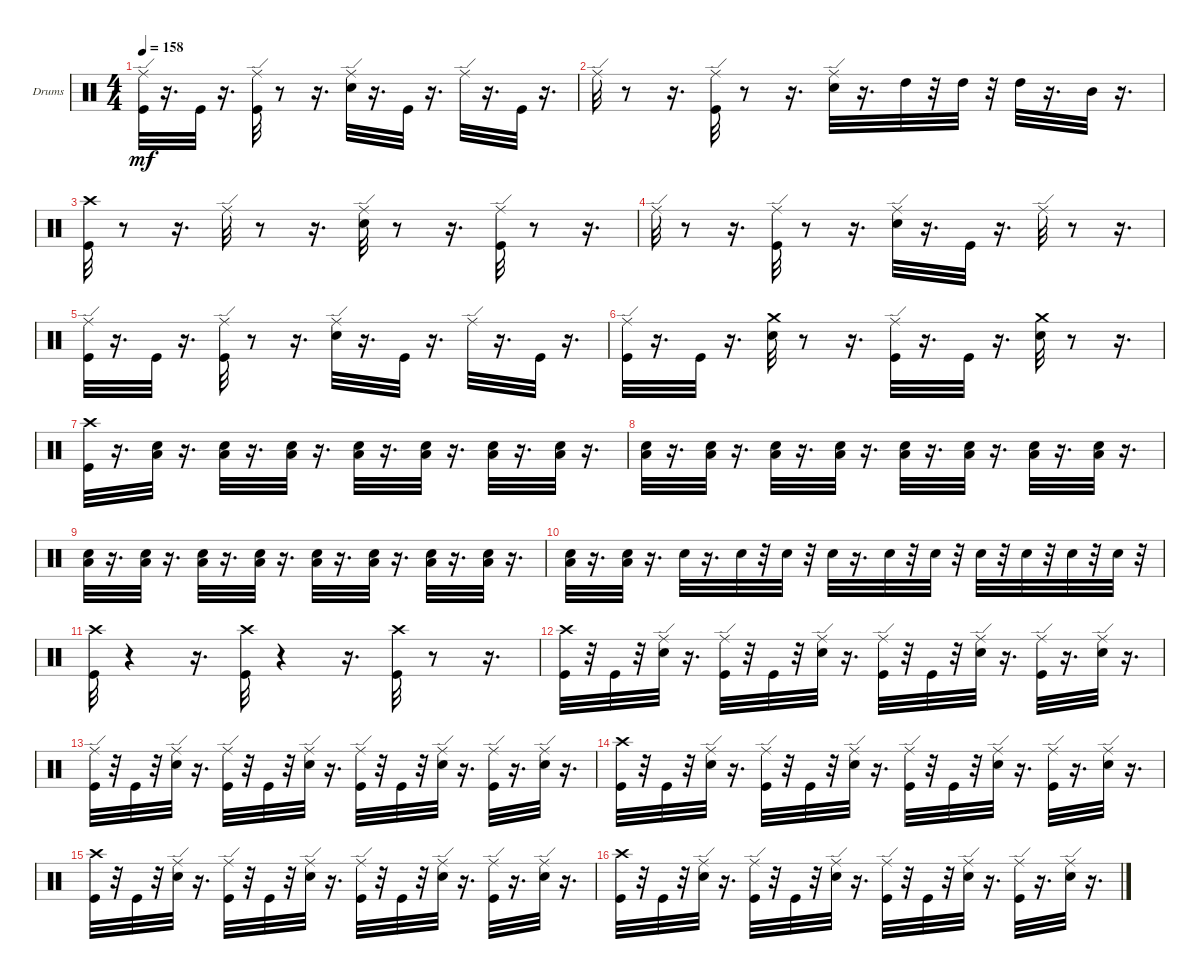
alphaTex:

\bracketExtendMode groupsimilarinstruments
\firstSystemTrackNameOrientation horizontal
\otherSystemsTrackNameOrientation horizontal
\track ("" "Drums") {instrument percussion}
\staff {score}
\articulation defaults
\ts (4 4)
\tempo 158
\clef neutral
\ks c
("Ride (edge)" "Kick (hit)").32{dy mf} r.16{d} "Kick (hit)".32 r.16{d} ("Ride (edge)" "Kick (hit)").32 r.8 r.16{d} ("Snare (hit) 2" "Ride (edge)").32 r.16{d} "Kick (hit)".32 r.16{d} "Ride (edge)".32 r.16{d} "Kick (hit)".32 r.16{d} |
"Ride (edge)".32 r.8 r.16{d} ("Kick (hit)" "Ride (edge)").32 r.8 r.16{d} ("Snare (hit) 2" "Ride (edge)").32 r.16{d} "High Tom (hit)".32 r.32 "High Tom (hit)".32 r.32 "High Tom (hit)".32 r.16{d} "Mid Tom (hit)".32 r.16{d} |
("Crash high (hit)" "Kick (hit)").32 r.8 r.16{d} "Ride (edge)".32 r.8 r.16{d} ("Snare (hit) 2" "Ride (edge)").32 r.8 r.16{d} ("Kick (hit)" "Ride (edge)").32 r.8 r.16{d} |
"Ride (edge)".32 r.8 r.16{d} ("Kick (hit)" "Ride (edge)").32 r.8 r.16{d} ("Snare (hit) 2" "Ride (edge)").32 r.16{d} "Kick (hit)".32 r.16{d} "Ride (edge)".32 r.8 r.16{d} |
("Ride (edge)" "Kick (hit)").32 r.16{d} "Kick (hit)".32 r.16{d} ("Ride (edge)" "Kick (hit)").32 r.8 r.16{d} ("Snare (hit) 2" "Ride (edge)").32 r.16{d} "Kick (hit)".32 r.16{d} "Ride (edge)".32 r.16{d} "Kick (hit)".32 r.16{d} |
("Kick (hit)" "Ride (edge)").32 r.16{d} "Kick (hit)".32 r.16{d} ("Crash medium (hit)" "Snare (hit) 2").32 r.8 r.16{d} ("Kick (hit)" "Ride (edge)").32 r.16{d} "Kick (hit)".32 r.16{d} ("Crash medium (hit)" "Snare (hit) 2").32 r.8 r.16{d} |
("Crash high (hit)" "Kick (hit)").32 r.16{d} ("Low Tom (hit)" "Snare (hit) 2").32 r.16{d} ("Low Tom (hit)" "Snare (hit) 2").32 r.16{d} ("Low Tom (hit)" "Snare (hit) 2").32 r.16{d} ("Low Tom (hit)" "Snare (hit) 2").32 r.16{d} ("Low Tom (hit)" "Snare (hit) 2").32 r.16{d} ("Low Tom (hit)" "Snare (hit) 2").32 r.16{d} ("Low Tom (hit)" "Snare (hit) 2").32 r.16{d} |
("Low Tom (hit)" "Snare (hit) 2").32 r.16{d} ("Low Tom (hit)" "Snare (hit) 2").32 r.16{d} ("Low Tom (hit)" "Snare (hit) 2").32 r.16{d} ("Low Tom (hit)" "Snare (hit) 2").32 r.16{d} ("Low Tom (hit)" "Snare (hit) 2").32 r.16{d} ("Low Tom (hit)" "Snare (hit) 2").32 r.16{d} ("Low Tom (hit)" "Snare (hit) 2").32 r.16{d} ("Low Tom (hit)" "Snare (hit) 2").32 r.16{d} |
("Low Tom (hit)" "Snare (hit) 2").32 r.16{d} ("Low Tom (hit)" "Snare (hit) 2").32 r.16{d} ("Low Tom (hit)" "Snare (hit) 2").32 r.16{d} ("Low Tom (hit)" "Snare (hit) 2").32 r.16{d} ("Low Tom (hit)" "Snare (hit) 2").32 r.16{d} ("Low Tom (hit)" "Snare (hit) 2").32 r.16{d} ("Low Tom (hit)" "Snare (hit) 2").32 r.16{d} ("Low Tom (hit)" "Snare (hit) 2").32 r.16{d} |
("Low Tom (hit)" "Snare (hit) 2").32 r.16{d} ("Low Tom (hit)" "Snare (hit) 2").32 r.16{d} "Snare (hit) 2".32 r.16{d} "Snare (hit) 2".32 r.32 "Snare (hit) 2".32 r.32 "Snare (hit) 2".32 r.16{d} "Snare (hit) 2".32 r.32 "Snare (hit) 2".32 r.32 "Snare (hit) 2".32 r.32 "Snare (hit) 2".32 r.32 "Snare (hit) 2".32 r.32 "Snare (hit) 2".32 r.32 |
("Crash high (hit)" "Kick (hit)").32 r.4 r.16{d} ("Crash high (hit)" "Kick (hit)").32 r.4 r.16{d} ("Crash high (hit)" "Kick (hit)").32 r.8 r.16{d} |
("Crash high (hit)" "Kick (hit)").32 r.32 "Kick (hit)".32 r.32 ("Snare (hit) 2" "Ride (edge)").32 r.16{d} ("Ride (edge)" "Kick (hit)").32 r.32 "Kick (hit)".32 r.32 ("Ride (edge)" "Snare (hit) 2").32 r.16{d} ("Kick (hit)" "Ride (edge)").32 r.32 "Kick (hit)".32 r.32 ("Snare (hit) 2" "Ride (edge)").32 r.16{d} ("Kick (hit)" "Ride (edge)").32 r.16{d} ("Snare (hit) 2" "Ride (edge)").32 r.16{d} |
("Ride (edge)" "Kick (hit)").32 r.32 "Kick (hit)".32 r.32 ("Snare (hit) 2" "Ride (edge)").32 r.16{d} ("Ride (edge)" "Kick (hit)").32 r.32 "Kick (hit)".32 r.32 ("Ride (edge)" "Snare (hit) 2").32 r.16{d} ("Kick (hit)" "Ride (edge)").32 r.32 "Kick (hit)".32 r.32 ("Snare (hit) 2" "Ride (edge)").32 r.16{d} ("Kick (hit)" "Ride (edge)").32 r.16{d} ("Snare (hit) 2" "Ride (edge)").32 r.16{d} |
("Crash high (hit)" "Kick (hit)").32 r.32 "Kick (hit)".32 r.32 ("Snare (hit) 2" "Ride (edge)").32 r.16{d} ("Ride (edge)" "Kick (hit)").32 r.32 "Kick (hit)".32 r.32 ("Ride (edge)" "Snare (hit) 2").32 r.16{d} ("Kick (hit)" "Ride (edge)").32 r.32 "Kick (hit)".32 r.32 ("Snare (hit) 2" "Ride (edge)").32 r.16{d} ("Kick (hit)" "Ride (edge)").32 r.16{d} ("Snare (hit) 2" "Ride (edge)").32 r.16{d} |
("Crash high (hit)" "Kick (hit)").32 r.32 "Kick (hit)".32 r.32 ("Snare (hit) 2" "Ride (edge)").32 r.16{d} ("Ride (edge)" "Kick (hit)").32 r.32 "Kick (hit)".32 r.32 ("Ride (edge)" "Snare (hit) 2").32 r.16{d} ("Kick (hit)" "Ride (edge)").32 r.32 "Kick (hit)".32 r.32 ("Snare (hit) 2" "Ride (edge)").32 r.16{d} ("Kick (hit)" "Ride (edge)").32 r.16{d} ("Snare (hit) 2" "Ride (edge)").32 r.16{d} |
("Crash high (hit)" "Kick (hit)").32 r.32 "Kick (hit)".32 r.32 ("Snare (hit) 2" "Ride (edge)").32 r.16{d} ("Ride (edge)" "Kick (hit)").32 r.32 "Kick (hit)".32 r.32 ("Ride (edge)" "Snare (hit) 2").32 r.16{d} ("Kick (hit)" "Ride (edge)").32 r.32 "Kick (hit)".32 r.32 ("Snare (hit) 2" "Ride (edge)").32 r.16{d} ("Kick (hit)" "Ride (edge)").32 r.16{d} ("Snare (hit) 2" "Ride (edge)").32 r.16{d}
